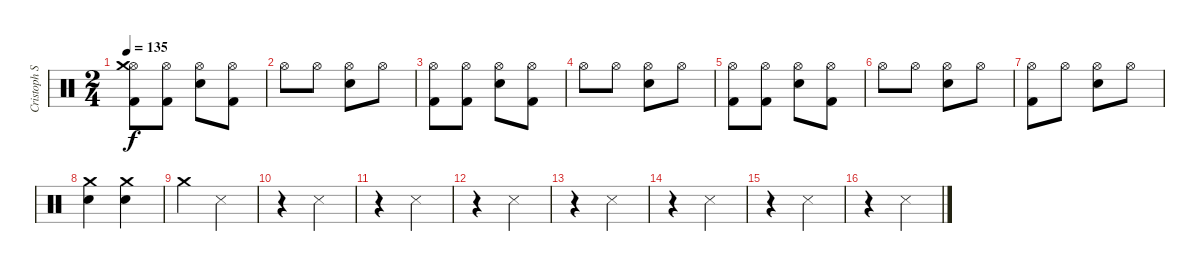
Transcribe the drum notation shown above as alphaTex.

\track ("Cristoph Schneider / Drums" "Cristoph S") {instrument percussion}
\staff {score}
\articulation defaults
\ts (2 4)
\tempo 135
\clef neutral
\ks c
("Hi-Hat (open)" "Kick (hit) 2" "Crash medium (hit)").8{dy f} ("Hi-Hat (open)" "Kick (hit) 2").8 ("Hi-Hat (open)" "Electric Snare (hit)").8 ("Kick (hit) 2" "Hi-Hat (open)").8 |
"Hi-Hat (open)".8 "Hi-Hat (open)".8 ("Electric Snare (hit)" "Hi-Hat (open)").8 "Hi-Hat (open)".8 |
("Hi-Hat (open)" "Kick (hit) 2").8 ("Hi-Hat (open)" "Kick (hit) 2").8 ("Hi-Hat (open)" "Electric Snare (hit)").8 ("Hi-Hat (open)" "Kick (hit) 2").8 |
"Hi-Hat (open)".8 "Hi-Hat (open)".8 ("Electric Snare (hit)" "Hi-Hat (open)").8 "Hi-Hat (open)".8 |
("Hi-Hat (open)" "Kick (hit) 2").8 ("Hi-Hat (open)" "Kick (hit) 2").8 ("Hi-Hat (open)" "Electric Snare (hit)").8 ("Hi-Hat (open)" "Kick (hit) 2").8 |
"Hi-Hat (open)".8 "Hi-Hat (open)".8 ("Hi-Hat (open)" "Electric Snare (hit)").8 "Hi-Hat (open)".8 |
("Kick (hit) 2" "Hi-Hat (open)").8 "Hi-Hat (open)".8 ("Hi-Hat (open)" "Electric Snare (hit)").8 "Hi-Hat (open)".8 |
("Crash medium (hit)" "Electric Snare (hit)").4 ("Crash medium (hit)" "Electric Snare (hit)").4 |
"Crash medium (hit)".4 "Metronome (hit)".4 |
r.4 "Metronome (hit)".4 |
r.4 "Metronome (hit)".4 |
r.4 "Metronome (hit)".4 |
r.4 "Metronome (hit)".4 |
r.4 "Metronome (hit)".4 |
r.4 "Metronome (hit)".4 |
r.4 "Metronome (hit)".4
